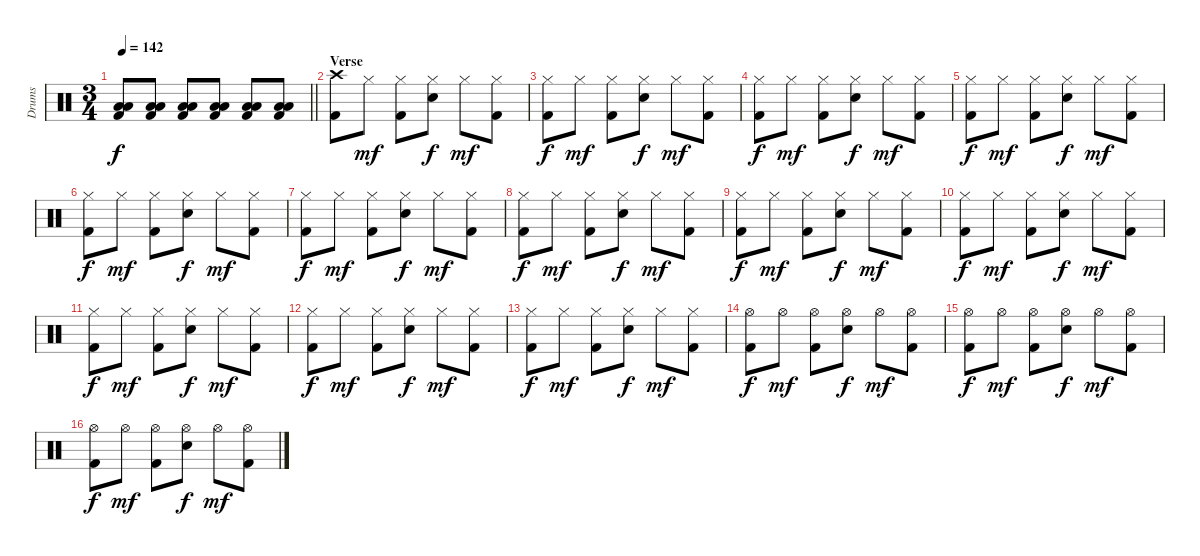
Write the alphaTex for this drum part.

\track ("Drums" "Drums") {instrument percussion}
\staff {score}
\articulation defaults
\ts (3 4)
\tempo 142
\clef neutral
\barLineRight lightlight
\ks c
("Low Tom (hit)" "Low Floor Tom (hit)" "Kick (hit) 2").8{dy f} ("Low Tom (hit)" "Low Floor Tom (hit)" "Kick (hit) 2").8 ("Low Tom (hit)" "Low Floor Tom (hit)" "Kick (hit) 2").8 ("Low Tom (hit)" "Low Floor Tom (hit)" "Kick (hit) 2").8 ("Low Tom (hit)" "Low Floor Tom (hit)" "Kick (hit) 2").8 ("Low Tom (hit)" "Low Floor Tom (hit)" "Kick (hit) 2").8 |
\section ("" "Verse")
("Crash high (hit)" "Kick (hit) 2").8 "Hi-Hat (closed)".8{dy mf} ("Hi-Hat (closed)" "Kick (hit) 2").8 ("Hi-Hat (closed)" "Electric Snare (hit)").8{dy f} "Hi-Hat (closed)".8{dy mf} ("Hi-Hat (closed)" "Kick (hit) 2").8 |
("Hi-Hat (closed)" "Kick (hit) 2").8{dy f} "Hi-Hat (closed)".8{dy mf} ("Hi-Hat (closed)" "Kick (hit) 2").8 ("Hi-Hat (closed)" "Electric Snare (hit)").8{dy f} "Hi-Hat (closed)".8{dy mf} ("Hi-Hat (closed)" "Kick (hit) 2").8 |
("Hi-Hat (closed)" "Kick (hit) 2").8{dy f} "Hi-Hat (closed)".8{dy mf} ("Hi-Hat (closed)" "Kick (hit) 2").8 ("Hi-Hat (closed)" "Electric Snare (hit)").8{dy f} "Hi-Hat (closed)".8{dy mf} ("Hi-Hat (closed)" "Kick (hit) 2").8 |
("Hi-Hat (closed)" "Kick (hit) 2").8{dy f} "Hi-Hat (closed)".8{dy mf} ("Hi-Hat (closed)" "Kick (hit) 2").8 ("Hi-Hat (closed)" "Electric Snare (hit)").8{dy f} "Hi-Hat (closed)".8{dy mf} ("Hi-Hat (closed)" "Kick (hit) 2").8 |
("Hi-Hat (closed)" "Kick (hit) 2").8{dy f} "Hi-Hat (closed)".8{dy mf} ("Hi-Hat (closed)" "Kick (hit) 2").8 ("Hi-Hat (closed)" "Electric Snare (hit)").8{dy f} "Hi-Hat (closed)".8{dy mf} ("Hi-Hat (closed)" "Kick (hit) 2").8 |
("Hi-Hat (closed)" "Kick (hit) 2").8{dy f} "Hi-Hat (closed)".8{dy mf} ("Hi-Hat (closed)" "Kick (hit) 2").8 ("Hi-Hat (closed)" "Electric Snare (hit)").8{dy f} "Hi-Hat (closed)".8{dy mf} ("Hi-Hat (closed)" "Kick (hit) 2").8 |
("Hi-Hat (closed)" "Kick (hit) 2").8{dy f} "Hi-Hat (closed)".8{dy mf} ("Hi-Hat (closed)" "Kick (hit) 2").8 ("Hi-Hat (closed)" "Electric Snare (hit)").8{dy f} "Hi-Hat (closed)".8{dy mf} ("Hi-Hat (closed)" "Kick (hit) 2").8 |
("Hi-Hat (closed)" "Kick (hit) 2").8{dy f} "Hi-Hat (closed)".8{dy mf} ("Hi-Hat (closed)" "Kick (hit) 2").8 ("Hi-Hat (closed)" "Electric Snare (hit)").8{dy f} "Hi-Hat (closed)".8{dy mf} ("Hi-Hat (closed)" "Kick (hit) 2").8 |
("Hi-Hat (closed)" "Kick (hit) 2").8{dy f} "Hi-Hat (closed)".8{dy mf} ("Hi-Hat (closed)" "Kick (hit) 2").8 ("Hi-Hat (closed)" "Electric Snare (hit)").8{dy f} "Hi-Hat (closed)".8{dy mf} ("Hi-Hat (closed)" "Kick (hit) 2").8 |
("Hi-Hat (closed)" "Kick (hit) 2").8{dy f} "Hi-Hat (closed)".8{dy mf} ("Hi-Hat (closed)" "Kick (hit) 2").8 ("Hi-Hat (closed)" "Electric Snare (hit)").8{dy f} "Hi-Hat (closed)".8{dy mf} ("Hi-Hat (closed)" "Kick (hit) 2").8 |
("Hi-Hat (closed)" "Kick (hit) 2").8{dy f} "Hi-Hat (closed)".8{dy mf} ("Hi-Hat (closed)" "Kick (hit) 2").8 ("Hi-Hat (closed)" "Electric Snare (hit)").8{dy f} "Hi-Hat (closed)".8{dy mf} ("Hi-Hat (closed)" "Kick (hit) 2").8 |
("Hi-Hat (closed)" "Kick (hit) 2").8{dy f} "Hi-Hat (closed)".8{dy mf} ("Hi-Hat (closed)" "Kick (hit) 2").8 ("Hi-Hat (closed)" "Electric Snare (hit)").8{dy f} "Hi-Hat (closed)".8{dy mf} ("Hi-Hat (closed)" "Kick (hit) 2").8 |
("Hi-Hat (open)" "Kick (hit) 2").8{dy f} "Hi-Hat (open)".8{dy mf} ("Hi-Hat (open)" "Kick (hit) 2").8 ("Hi-Hat (open)" "Electric Snare (hit)").8{dy f} "Hi-Hat (open)".8{dy mf} ("Hi-Hat (open)" "Kick (hit) 2").8 |
("Hi-Hat (open)" "Kick (hit) 2").8{dy f} "Hi-Hat (open)".8{dy mf} ("Hi-Hat (open)" "Kick (hit) 2").8 ("Hi-Hat (open)" "Electric Snare (hit)").8{dy f} "Hi-Hat (open)".8{dy mf} ("Hi-Hat (open)" "Kick (hit) 2").8 |
("Hi-Hat (open)" "Kick (hit) 2").8{dy f} "Hi-Hat (open)".8{dy mf} ("Hi-Hat (open)" "Kick (hit) 2").8 ("Hi-Hat (open)" "Electric Snare (hit)").8{dy f} "Hi-Hat (open)".8{dy mf} ("Hi-Hat (open)" "Kick (hit) 2").8
